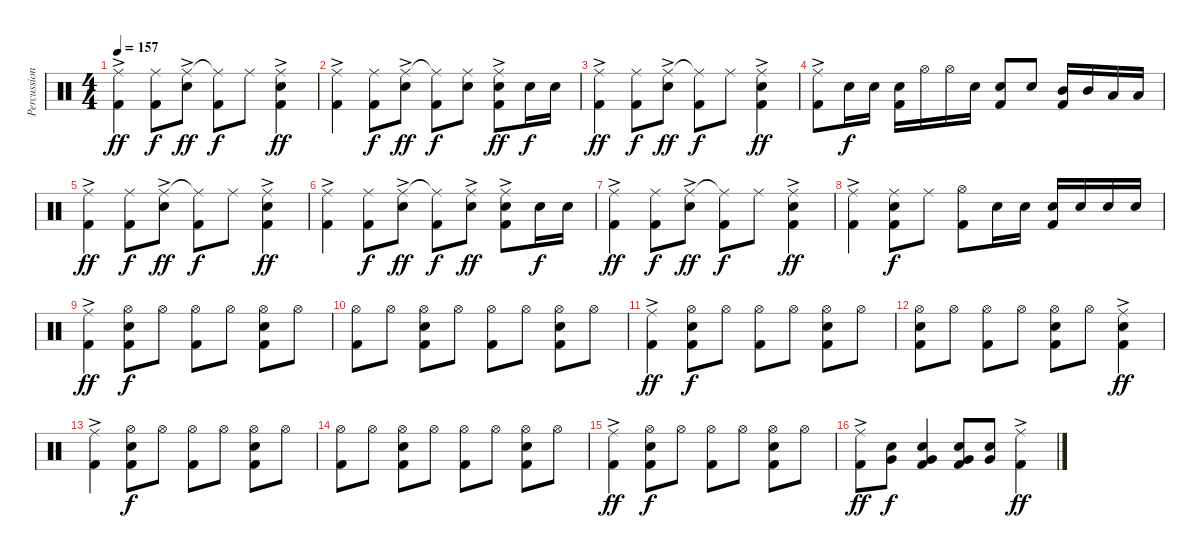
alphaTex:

\track ("Percussion" "Percussion") {instrument percussion}
\staff {score}
\articulation defaults
\ts (4 4)
\tempo 157
\clef neutral
\ks c
("Ride (middle)"{ac} "Kick (hit) 2").4{dy ff} ("Ride (middle)" "Kick (hit) 2").8{dy f} ("Ride (middle)"{ac} "Snare (hit) 2").8{dy ff} ("Ride (middle)"{t} "Kick (hit) 2").8{dy f} "Ride (middle)".8 ("Ride (middle)"{ac} "Snare (hit) 2" "Kick (hit) 2").4{dy ff} |
("Ride (middle)"{ac} "Kick (hit) 2").4 ("Ride (middle)" "Kick (hit) 2").8{dy f} ("Ride (middle)"{ac} "Snare (hit) 2").8{dy ff} ("Ride (middle)"{t} "Kick (hit) 2").8{dy f} ("Ride (middle)" "Snare (hit) 2").8 ("Ride (middle)"{ac} "Snare (hit) 2" "Kick (hit) 2").8{dy ff} "Snare (hit) 2".16{dy f} "Snare (hit) 2".16 |
("Ride (middle)"{ac} "Kick (hit) 2").4{dy ff} ("Ride (middle)" "Kick (hit) 2").8{dy f} ("Ride (middle)"{ac} "Snare (hit) 2").8{dy ff} ("Ride (middle)"{t} "Kick (hit) 2").8{dy f} "Ride (middle)".8 ("Ride (middle)"{ac} "Snare (hit) 2" "Kick (hit) 2").4{dy ff} |
("Ride (middle)"{ac} "Kick (hit) 2").8 "Snare (hit) 2".16{dy f} "Snare (hit) 2".16 ("Snare (hit) 2" "Kick (hit) 2").16 "Hi-Hat (open)".16 "Hi-Hat (open)".16 "Snare (hit) 2".16 ("Snare (hit) 2" "Kick (hit) 2").8 "Snare (hit) 2".8 ("Mid Tom (hit)" "Kick (hit) 2").16 "Mid Tom (hit)".16 "Low Tom (hit)".16 "Low Tom (hit)".16 |
("Ride (middle)"{ac} "Kick (hit) 2").4{dy ff} ("Ride (middle)" "Kick (hit) 2").8{dy f} ("Ride (middle)"{ac} "Snare (hit) 2").8{dy ff} ("Ride (middle)"{t} "Kick (hit) 2").8{dy f} "Ride (middle)".8 ("Ride (middle)"{ac} "Snare (hit) 2" "Kick (hit) 2").4{dy ff} |
("Ride (middle)"{ac} "Kick (hit) 2").4 ("Ride (middle)" "Kick (hit) 2").8{dy f} ("Ride (middle)"{ac} "Snare (hit) 2").8{dy ff} ("Ride (middle)"{t} "Kick (hit) 2").8{dy f} ("Ride (middle)"{ac} "Snare (hit) 2").8{dy ff} ("Ride (middle)"{ac} "Snare (hit) 2" "Kick (hit) 2").8 "Snare (hit) 2".16{dy f} "Snare (hit) 2".16 |
("Ride (middle)"{ac} "Kick (hit) 2").4{dy ff} ("Ride (middle)" "Kick (hit) 2").8{dy f} ("Ride (middle)"{ac} "Snare (hit) 2").8{dy ff} ("Ride (middle)"{t} "Kick (hit) 2").8{dy f} "Ride (middle)".8 ("Ride (middle)"{ac} "Snare (hit) 2" "Kick (hit) 2").4{dy ff} |
("Ride (middle)"{ac} "Kick (hit) 2").4 ("Ride (middle)" "Snare (hit) 2" "Kick (hit) 2").8{dy f} "Ride (middle)".8 ("Hi-Hat (open)" "Kick (hit) 2").8 "Snare (hit) 2".16 "Snare (hit) 2".16 ("Snare (hit) 2" "Kick (hit) 2").16 "Snare (hit) 2".16 "Snare (hit) 2".16 "Snare (hit) 2".16 |
("Ride (middle)"{ac} "Kick (hit) 2").4{dy ff} ("Hi-Hat (open)" "Snare (hit) 2" "Kick (hit) 2").8{dy f} "Hi-Hat (open)".8 ("Hi-Hat (open)" "Kick (hit) 2").8 "Hi-Hat (open)".8 ("Hi-Hat (open)" "Snare (hit) 2" "Kick (hit) 2").8 "Hi-Hat (open)".8 |
("Hi-Hat (open)" "Kick (hit) 2").8 "Hi-Hat (open)".8 ("Hi-Hat (open)" "Snare (hit) 2" "Kick (hit) 2").8 "Hi-Hat (open)".8 ("Hi-Hat (open)" "Kick (hit) 2").8 "Hi-Hat (open)".8 ("Hi-Hat (open)" "Snare (hit) 2" "Kick (hit) 2").8 "Hi-Hat (open)".8 |
("Ride (middle)"{ac} "Kick (hit) 2").4{dy ff} ("Hi-Hat (open)" "Snare (hit) 2" "Kick (hit) 2").8{dy f} "Hi-Hat (open)".8 ("Hi-Hat (open)" "Kick (hit) 2").8 "Hi-Hat (open)".8 ("Hi-Hat (open)" "Snare (hit) 2" "Kick (hit) 2").8 "Hi-Hat (open)".8 |
("Hi-Hat (open)" "Snare (hit) 2" "Kick (hit) 2").8 "Hi-Hat (open)".8 ("Hi-Hat (open)" "Kick (hit) 2").8 "Hi-Hat (open)".8 ("Hi-Hat (open)" "Snare (hit) 2" "Kick (hit) 2").8 "Hi-Hat (open)".8 ("Ride (middle)"{ac} "Snare (hit) 2" "Kick (hit) 2").4{dy ff} |
("Ride (middle)"{ac} "Kick (hit) 2").4 ("Hi-Hat (open)" "Snare (hit) 2" "Kick (hit) 2").8{dy f} "Hi-Hat (open)".8 ("Hi-Hat (open)" "Kick (hit) 2").8 "Hi-Hat (open)".8 ("Hi-Hat (open)" "Snare (hit) 2" "Kick (hit) 2").8 "Hi-Hat (open)".8 |
("Hi-Hat (open)" "Kick (hit) 2").8 "Hi-Hat (open)".8 ("Hi-Hat (open)" "Snare (hit) 2" "Kick (hit) 2").8 "Hi-Hat (open)".8 ("Hi-Hat (open)" "Kick (hit) 2").8 "Hi-Hat (open)".8 ("Hi-Hat (open)" "Snare (hit) 2" "Kick (hit) 2").8 "Hi-Hat (open)".8 |
("Ride (middle)"{ac} "Kick (hit) 2").4{dy ff} ("Hi-Hat (open)" "Snare (hit) 2" "Kick (hit) 2").8{dy f} "Hi-Hat (open)".8 ("Hi-Hat (open)" "Kick (hit) 2").8 "Hi-Hat (open)".8 ("Hi-Hat (open)" "Snare (hit) 2" "Kick (hit) 2").8 "Hi-Hat (open)".8 |
("Ride (middle)"{ac} "Kick (hit) 2").8{dy ff} ("Snare (hit) 2" "Very Low Tom (hit)").8{dy f} ("Snare (hit) 2" "Very Low Tom (hit)" "Kick (hit) 2").4 ("Snare (hit) 2" "Very Low Tom (hit)" "Kick (hit) 2").8 ("Snare (hit) 2" "Very Low Tom (hit)").8 ("Ride (middle)"{ac} "Kick (hit) 2").4{dy ff}
